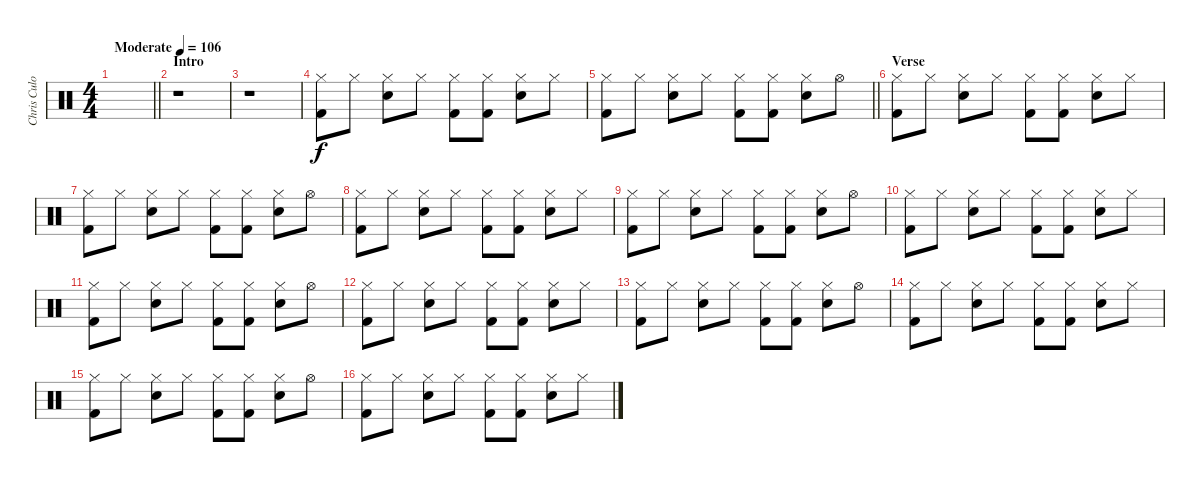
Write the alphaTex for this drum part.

\track ("Chris Culos" "Chris Culo") {instrument percussion}
\staff {score}
\articulation defaults
\ts (4 4)
\tempo (106 "Moderate")
\clef neutral
\barLineRight lightlight
\ks c
|
\section ("" "Intro")
r.1 |
r.1 |
("Hi-Hat (closed)" "Kick (hit) 2").8 "Hi-Hat (closed)".8 ("Hi-Hat (closed)" "Snare (hit) 2").8 "Hi-Hat (closed)".8 ("Hi-Hat (closed)" "Kick (hit) 2").8 ("Hi-Hat (closed)" "Kick (hit) 2").8 ("Hi-Hat (closed)" "Snare (hit) 2").8 "Hi-Hat (closed)".8 |
\barLineRight lightlight
("Hi-Hat (closed)" "Kick (hit) 2").8 "Hi-Hat (closed)".8 ("Hi-Hat (closed)" "Snare (hit) 2").8 "Hi-Hat (closed)".8 ("Hi-Hat (closed)" "Kick (hit) 2").8 ("Hi-Hat (closed)" "Kick (hit) 2").8 ("Hi-Hat (closed)" "Snare (hit) 2").8 "Hi-Hat (open)".8 |
\section ("" "Verse")
("Hi-Hat (closed)" "Kick (hit) 2").8 "Hi-Hat (closed)".8 ("Hi-Hat (closed)" "Snare (hit) 2").8 "Hi-Hat (closed)".8 ("Hi-Hat (closed)" "Kick (hit) 2").8 ("Hi-Hat (closed)" "Kick (hit) 2").8 ("Hi-Hat (closed)" "Snare (hit) 2").8 "Hi-Hat (closed)".8 |
("Hi-Hat (closed)" "Kick (hit) 2").8 "Hi-Hat (closed)".8 ("Hi-Hat (closed)" "Snare (hit) 2").8 "Hi-Hat (closed)".8 ("Hi-Hat (closed)" "Kick (hit) 2").8 ("Hi-Hat (closed)" "Kick (hit) 2").8 ("Hi-Hat (closed)" "Snare (hit) 2").8 "Hi-Hat (open)".8 |
("Hi-Hat (closed)" "Kick (hit) 2").8 "Hi-Hat (closed)".8 ("Hi-Hat (closed)" "Snare (hit) 2").8 "Hi-Hat (closed)".8 ("Hi-Hat (closed)" "Kick (hit) 2").8 ("Hi-Hat (closed)" "Kick (hit) 2").8 ("Hi-Hat (closed)" "Snare (hit) 2").8 "Hi-Hat (closed)".8 |
("Hi-Hat (closed)" "Kick (hit) 2").8 "Hi-Hat (closed)".8 ("Hi-Hat (closed)" "Snare (hit) 2").8 "Hi-Hat (closed)".8 ("Hi-Hat (closed)" "Kick (hit) 2").8 ("Hi-Hat (closed)" "Kick (hit) 2").8 ("Hi-Hat (closed)" "Snare (hit) 2").8 "Hi-Hat (open)".8 |
("Hi-Hat (closed)" "Kick (hit) 2").8 "Hi-Hat (closed)".8 ("Hi-Hat (closed)" "Snare (hit) 2").8 "Hi-Hat (closed)".8 ("Hi-Hat (closed)" "Kick (hit) 2").8 ("Hi-Hat (closed)" "Kick (hit) 2").8 ("Hi-Hat (closed)" "Snare (hit) 2").8 "Hi-Hat (closed)".8 |
("Hi-Hat (closed)" "Kick (hit) 2").8 "Hi-Hat (closed)".8 ("Hi-Hat (closed)" "Snare (hit) 2").8 "Hi-Hat (closed)".8 ("Hi-Hat (closed)" "Kick (hit) 2").8 ("Hi-Hat (closed)" "Kick (hit) 2").8 ("Hi-Hat (closed)" "Snare (hit) 2").8 "Hi-Hat (open)".8 |
("Hi-Hat (closed)" "Kick (hit) 2").8 "Hi-Hat (closed)".8 ("Hi-Hat (closed)" "Snare (hit) 2").8 "Hi-Hat (closed)".8 ("Hi-Hat (closed)" "Kick (hit) 2").8 ("Hi-Hat (closed)" "Kick (hit) 2").8 ("Hi-Hat (closed)" "Snare (hit) 2").8 "Hi-Hat (closed)".8 |
("Hi-Hat (closed)" "Kick (hit) 2").8 "Hi-Hat (closed)".8 ("Hi-Hat (closed)" "Snare (hit) 2").8 "Hi-Hat (closed)".8 ("Hi-Hat (closed)" "Kick (hit) 2").8 ("Hi-Hat (closed)" "Kick (hit) 2").8 ("Hi-Hat (closed)" "Snare (hit) 2").8 "Hi-Hat (open)".8 |
("Hi-Hat (closed)" "Kick (hit) 2").8 "Hi-Hat (closed)".8 ("Hi-Hat (closed)" "Snare (hit) 2").8 "Hi-Hat (closed)".8 ("Hi-Hat (closed)" "Kick (hit) 2").8 ("Hi-Hat (closed)" "Kick (hit) 2").8 ("Hi-Hat (closed)" "Snare (hit) 2").8 "Hi-Hat (closed)".8 |
("Hi-Hat (closed)" "Kick (hit) 2").8 "Hi-Hat (closed)".8 ("Hi-Hat (closed)" "Snare (hit) 2").8 "Hi-Hat (closed)".8 ("Hi-Hat (closed)" "Kick (hit) 2").8 ("Hi-Hat (closed)" "Kick (hit) 2").8 ("Hi-Hat (closed)" "Snare (hit) 2").8 "Hi-Hat (open)".8 |
("Hi-Hat (closed)" "Kick (hit) 2").8 "Hi-Hat (closed)".8 ("Hi-Hat (closed)" "Snare (hit) 2").8 "Hi-Hat (closed)".8 ("Hi-Hat (closed)" "Kick (hit) 2").8 ("Hi-Hat (closed)" "Kick (hit) 2").8 ("Hi-Hat (closed)" "Snare (hit) 2").8 "Hi-Hat (closed)".8
